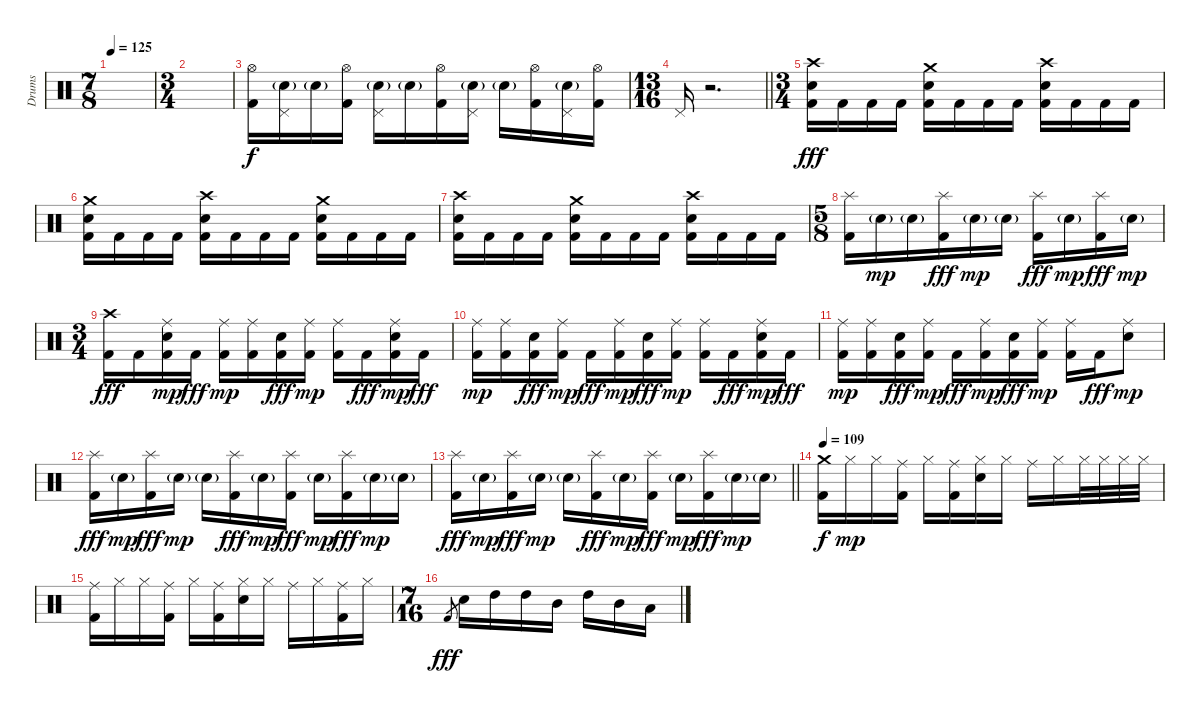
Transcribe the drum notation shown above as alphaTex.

\track ("Drums" "Drums") {instrument percussion}
\staff {score}
\articulation defaults
\ts (7 8)
\tempo 125
\clef neutral
\ks c
|
\ts (3 4)
|
("Kick (hit) 2" "Hi-Hat (open)").16 ("Electric Snare (hit)"{g} "Pedal Hi-Hat (hit)").16 "Electric Snare (hit)"{g}.16 ("Kick (hit) 2" "Hi-Hat (open)").16 ("Electric Snare (hit)"{g} "Pedal Hi-Hat (hit)").16 "Electric Snare (hit)"{g}.16 ("Kick (hit) 2" "Hi-Hat (open)").16 ("Electric Snare (hit)"{g} "Pedal Hi-Hat (hit)").16 "Electric Snare (hit)"{g}.16 ("Kick (hit) 2" "Hi-Hat (open)").16 ("Electric Snare (hit)"{g} "Pedal Hi-Hat (hit)").16 ("Kick (hit) 2" "Hi-Hat (open)").16 |
\ts (13 16)
\barLineRight lightlight "Pedal Hi-Hat (hit)".16
r.2{d} |
\ts (3 4)
("Kick (hit) 2" "Electric Snare (hit)" "Crash high (hit)").16{dy fff} "Kick (hit) 2".16 "Kick (hit) 2".16 "Kick (hit) 2".16 ("Kick (hit) 2" "Electric Snare (hit)" "Crash medium (hit)").16 "Kick (hit) 2".16 "Kick (hit) 2".16 "Kick (hit) 2".16 ("Kick (hit) 2" "Electric Snare (hit)" "Crash high (hit)").16 "Kick (hit) 2".16 "Kick (hit) 2".16 "Kick (hit) 2".16 |
("Kick (hit) 2" "Electric Snare (hit)" "Crash medium (hit)").16 "Kick (hit) 2".16 "Kick (hit) 2".16 "Kick (hit) 2".16 ("Kick (hit) 2" "Electric Snare (hit)" "Crash high (hit)").16 "Kick (hit) 2".16 "Kick (hit) 2".16 "Kick (hit) 2".16 ("Kick (hit) 2" "Electric Snare (hit)" "Crash medium (hit)").16 "Kick (hit) 2".16 "Kick (hit) 2".16 "Kick (hit) 2".16 |
("Kick (hit) 2" "Electric Snare (hit)" "Crash high (hit)").16 "Kick (hit) 2".16 "Kick (hit) 2".16 "Kick (hit) 2".16 ("Kick (hit) 2" "Electric Snare (hit)" "Crash medium (hit)").16 "Kick (hit) 2".16 "Kick (hit) 2".16 "Kick (hit) 2".16 ("Kick (hit) 2" "Electric Snare (hit)" "Crash high (hit)").16 "Kick (hit) 2".16 "Kick (hit) 2".16 "Kick (hit) 2".16 |
\ts (5 8)
("Kick (hit) 2" "Splash (hit)").16 "Electric Snare (hit)"{g}.16{dy mp} "Electric Snare (hit)"{g}.16 ("Kick (hit) 2" "Splash (hit)").16{dy fff} "Electric Snare (hit)"{g}.16{dy mp} "Electric Snare (hit)"{g}.16 ("Kick (hit) 2" "Splash (hit)").16{dy fff} "Electric Snare (hit)"{g}.16{dy mp} ("Kick (hit) 2" "Splash (hit)").16{dy fff} "Electric Snare (hit)"{g}.16{dy mp} |
\ts (3 4)
("Kick (hit) 2" "Crash high (hit)").16{dy fff} "Kick (hit) 2".16 ("Kick (hit) 2" "Electric Snare (hit)" "Ride (middle)").16{dy mp} "Kick (hit) 2".16{dy fff} ("Kick (hit) 2" "Ride (middle)").16{dy mp} ("Kick (hit) 2" "Ride (middle)").16 ("Kick (hit) 2" "Electric Snare (hit)").16{dy fff} ("Kick (hit) 2" "Ride (middle)").16{dy mp} ("Kick (hit) 2" "Ride (middle)").16 "Kick (hit) 2".16{dy fff} ("Kick (hit) 2" "Electric Snare (hit)" "Ride (middle)").16{dy mp} "Kick (hit) 2".16{dy fff} |
("Kick (hit) 2" "Ride (middle)").16{dy mp} ("Kick (hit) 2" "Ride (middle)").16 ("Kick (hit) 2" "Electric Snare (hit)").16{dy fff} ("Kick (hit) 2" "Ride (middle)").16{dy mp} "Kick (hit) 2".16{dy fff} ("Kick (hit) 2" "Ride (middle)").16{dy mp} ("Kick (hit) 2" "Electric Snare (hit)").16{dy fff} ("Kick (hit) 2" "Ride (middle)").16{dy mp} ("Kick (hit) 2" "Ride (middle)").16 "Kick (hit) 2".16{dy fff} ("Kick (hit) 2" "Electric Snare (hit)" "Ride (middle)").16{dy mp} "Kick (hit) 2".16{dy fff} |
("Kick (hit) 2" "Ride (middle)").16{dy mp} ("Kick (hit) 2" "Ride (middle)").16 ("Kick (hit) 2" "Electric Snare (hit)").16{dy fff} ("Kick (hit) 2" "Ride (middle)").16{dy mp} "Kick (hit) 2".16{dy fff} ("Kick (hit) 2" "Ride (middle)").16{dy mp} ("Kick (hit) 2" "Electric Snare (hit)").16{dy fff} ("Kick (hit) 2" "Ride (middle)").16{dy mp} ("Kick (hit) 2" "Ride (middle)").16 "Kick (hit) 2".16{dy fff} ("Electric Snare (hit)" "Ride (middle)").8{dy mp} |
("Kick (hit) 2" "Splash (hit)").16{dy fff} "Electric Snare (hit)"{g}.16{dy mp} ("Kick (hit) 2" "Splash (hit)").16{dy fff} "Electric Snare (hit)"{g}.16{dy mp} "Electric Snare (hit)"{g}.16 ("Kick (hit) 2" "Splash (hit)").16{dy fff} "Electric Snare (hit)"{g}.16{dy mp} ("Kick (hit) 2" "Splash (hit)").16{dy fff} "Electric Snare (hit)"{g}.16{dy mp} ("Kick (hit) 2" "Splash (hit)").16{dy fff} "Electric Snare (hit)"{g}.16{dy mp} "Electric Snare (hit)"{g}.16 |
\barLineRight lightlight
("Kick (hit) 2" "Splash (hit)").16{dy fff} "Electric Snare (hit)"{g}.16{dy mp} ("Kick (hit) 2" "Splash (hit)").16{dy fff} "Electric Snare (hit)"{g}.16{dy mp} "Electric Snare (hit)"{g}.16 ("Kick (hit) 2" "Splash (hit)").16{dy fff} "Electric Snare (hit)"{g}.16{dy mp} ("Kick (hit) 2" "Splash (hit)").16{dy fff} "Electric Snare (hit)"{g}.16{dy mp} ("Kick (hit) 2" "Splash (hit)").16{dy fff} "Electric Snare (hit)"{g}.16{dy mp} "Electric Snare (hit)"{g}.16 |
\tempo 109
("Kick (hit) 2" "Crash medium (hit)").16{dy f} "Hi-Hat (closed)".16{dy mp} "Hi-Hat (closed)".16 ("Kick (hit) 2" "Ride (middle)").16 "Hi-Hat (closed)".16 ("Kick (hit) 2" "Ride (middle)").16 ("Electric Snare (hit)" "Hi-Hat (closed)").16 "Hi-Hat (closed)".16 "Ride (middle)".16 "Hi-Hat (closed)".16 "Hi-Hat (closed)".32 "Hi-Hat (closed)".32 "Hi-Hat (closed)".32 "Hi-Hat (closed)".32 |
("Kick (hit) 2" "Ride (middle)").16 "Hi-Hat (closed)".16 "Hi-Hat (closed)".16 ("Kick (hit) 2" "Ride (middle)").16 "Hi-Hat (closed)".16 ("Kick (hit) 2" "Ride (middle)").16 ("Electric Snare (hit)" "Hi-Hat (closed)").16 "Hi-Hat (closed)".16 "Ride (middle)".16 "Hi-Hat (closed)".16 ("Kick (hit) 2" "Ride (middle)").16 "Hi-Hat (closed)".16 |
\ts (7 16)
"Kick (hit) 2".8{gr dy fff} "Electric Snare (hit)".16 "High Tom (hit)".16 "High Tom (hit)".16 "Mid Tom (hit)".16 "High Tom (hit)".16 "Mid Tom (hit)".16 "Low Tom (hit)".16
